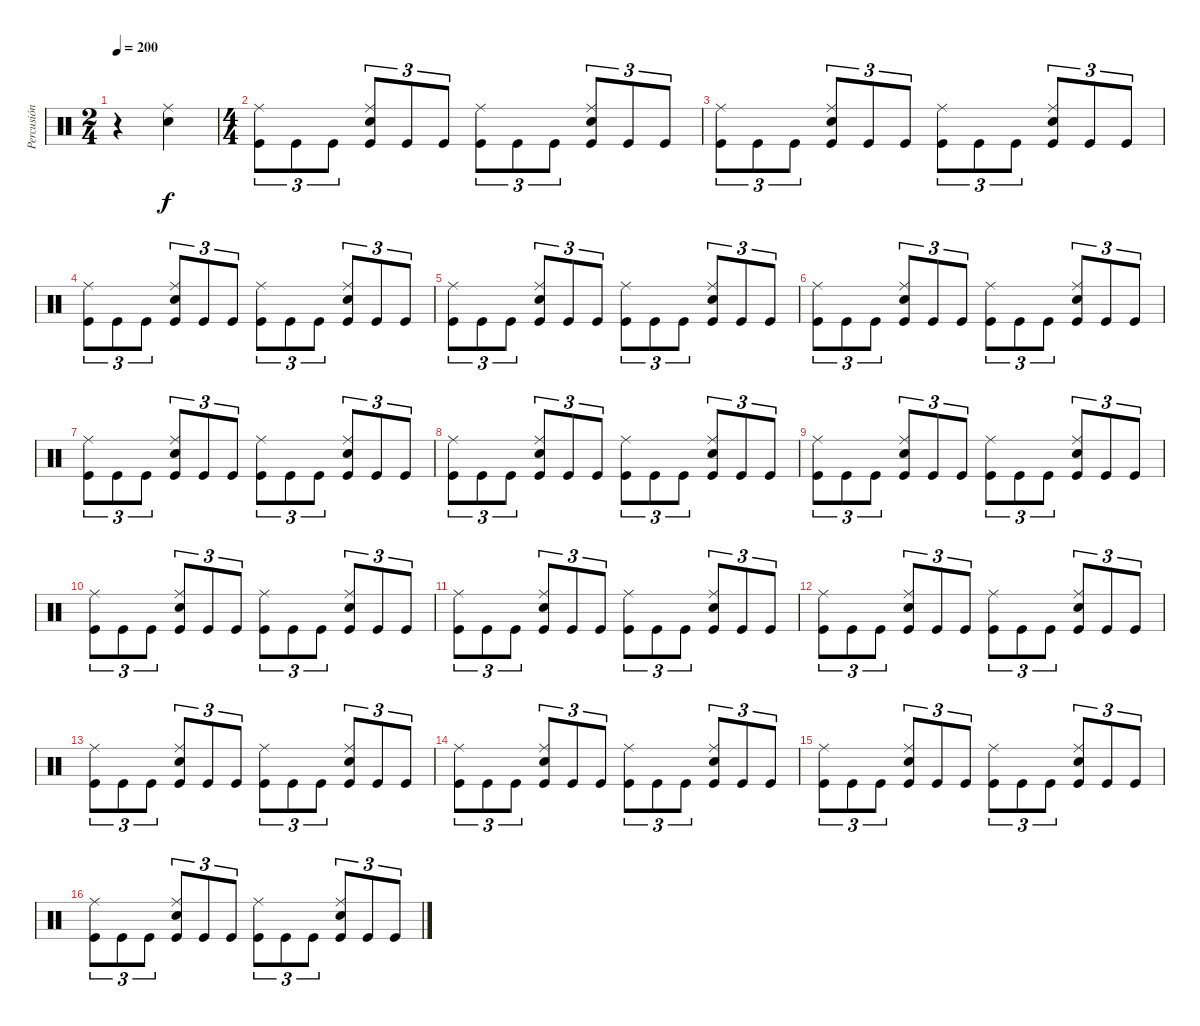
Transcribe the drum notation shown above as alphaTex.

\track ("Percusión" "Percusión") {instrument percussion}
\staff {score}
\articulation defaults
\ts (2 4)
\tempo 200
\clef neutral
\ks c
r.4{dy f} ("Electric Snare (hit)" "Ride (middle)").4 |
\ts (4 4)
("Kick (hit)" "Ride (middle)").8{tu (3 2)} "Kick (hit)".8{tu (3 2)} "Kick (hit)".8{tu (3 2)} ("Kick (hit)" "Electric Snare (hit)" "Ride (middle)").8{tu (3 2)} "Kick (hit)".8{tu (3 2)} "Kick (hit)".8{tu (3 2)} ("Kick (hit)" "Ride (middle)").8{tu (3 2)} "Kick (hit)".8{tu (3 2)} "Kick (hit)".8{tu (3 2)} ("Kick (hit)" "Electric Snare (hit)" "Ride (middle)").8{tu (3 2)} "Kick (hit)".8{tu (3 2)} "Kick (hit)".8{tu (3 2)} |
("Kick (hit)" "Ride (middle)").8{tu (3 2)} "Kick (hit)".8{tu (3 2)} "Kick (hit)".8{tu (3 2)} ("Kick (hit)" "Electric Snare (hit)" "Ride (middle)").8{tu (3 2)} "Kick (hit)".8{tu (3 2)} "Kick (hit)".8{tu (3 2)} ("Kick (hit)" "Ride (middle)").8{tu (3 2)} "Kick (hit)".8{tu (3 2)} "Kick (hit)".8{tu (3 2)} ("Kick (hit)" "Electric Snare (hit)" "Ride (middle)").8{tu (3 2)} "Kick (hit)".8{tu (3 2)} "Kick (hit)".8{tu (3 2)} |
("Kick (hit)" "Ride (middle)").8{tu (3 2)} "Kick (hit)".8{tu (3 2)} "Kick (hit)".8{tu (3 2)} ("Kick (hit)" "Electric Snare (hit)" "Ride (middle)").8{tu (3 2)} "Kick (hit)".8{tu (3 2)} "Kick (hit)".8{tu (3 2)} ("Kick (hit)" "Ride (middle)").8{tu (3 2)} "Kick (hit)".8{tu (3 2)} "Kick (hit)".8{tu (3 2)} ("Kick (hit)" "Electric Snare (hit)" "Ride (middle)").8{tu (3 2)} "Kick (hit)".8{tu (3 2)} "Kick (hit)".8{tu (3 2)} |
("Kick (hit)" "Ride (middle)").8{tu (3 2)} "Kick (hit)".8{tu (3 2)} "Kick (hit)".8{tu (3 2)} ("Kick (hit)" "Electric Snare (hit)" "Ride (middle)").8{tu (3 2)} "Kick (hit)".8{tu (3 2)} "Kick (hit)".8{tu (3 2)} ("Kick (hit)" "Ride (middle)").8{tu (3 2)} "Kick (hit)".8{tu (3 2)} "Kick (hit)".8{tu (3 2)} ("Kick (hit)" "Electric Snare (hit)" "Ride (middle)").8{tu (3 2)} "Kick (hit)".8{tu (3 2)} "Kick (hit)".8{tu (3 2)} |
("Kick (hit)" "Ride (middle)").8{tu (3 2)} "Kick (hit)".8{tu (3 2)} "Kick (hit)".8{tu (3 2)} ("Kick (hit)" "Electric Snare (hit)" "Ride (middle)").8{tu (3 2)} "Kick (hit)".8{tu (3 2)} "Kick (hit)".8{tu (3 2)} ("Kick (hit)" "Ride (middle)").8{tu (3 2)} "Kick (hit)".8{tu (3 2)} "Kick (hit)".8{tu (3 2)} ("Kick (hit)" "Electric Snare (hit)" "Ride (middle)").8{tu (3 2)} "Kick (hit)".8{tu (3 2)} "Kick (hit)".8{tu (3 2)} |
("Kick (hit)" "Ride (middle)").8{tu (3 2)} "Kick (hit)".8{tu (3 2)} "Kick (hit)".8{tu (3 2)} ("Kick (hit)" "Electric Snare (hit)" "Ride (middle)").8{tu (3 2)} "Kick (hit)".8{tu (3 2)} "Kick (hit)".8{tu (3 2)} ("Kick (hit)" "Ride (middle)").8{tu (3 2)} "Kick (hit)".8{tu (3 2)} "Kick (hit)".8{tu (3 2)} ("Kick (hit)" "Electric Snare (hit)" "Ride (middle)").8{tu (3 2)} "Kick (hit)".8{tu (3 2)} "Kick (hit)".8{tu (3 2)} |
("Kick (hit)" "Ride (middle)").8{tu (3 2)} "Kick (hit)".8{tu (3 2)} "Kick (hit)".8{tu (3 2)} ("Kick (hit)" "Electric Snare (hit)" "Ride (middle)").8{tu (3 2)} "Kick (hit)".8{tu (3 2)} "Kick (hit)".8{tu (3 2)} ("Kick (hit)" "Ride (middle)").8{tu (3 2)} "Kick (hit)".8{tu (3 2)} "Kick (hit)".8{tu (3 2)} ("Kick (hit)" "Electric Snare (hit)" "Ride (middle)").8{tu (3 2)} "Kick (hit)".8{tu (3 2)} "Kick (hit)".8{tu (3 2)} |
("Kick (hit)" "Ride (middle)").8{tu (3 2)} "Kick (hit)".8{tu (3 2)} "Kick (hit)".8{tu (3 2)} ("Kick (hit)" "Electric Snare (hit)" "Ride (middle)").8{tu (3 2)} "Kick (hit)".8{tu (3 2)} "Kick (hit)".8{tu (3 2)} ("Kick (hit)" "Ride (middle)").8{tu (3 2)} "Kick (hit)".8{tu (3 2)} "Kick (hit)".8{tu (3 2)} ("Kick (hit)" "Electric Snare (hit)" "Ride (middle)").8{tu (3 2)} "Kick (hit)".8{tu (3 2)} "Kick (hit)".8{tu (3 2)} |
("Kick (hit)" "Ride (middle)").8{tu (3 2)} "Kick (hit)".8{tu (3 2)} "Kick (hit)".8{tu (3 2)} ("Kick (hit)" "Electric Snare (hit)" "Ride (middle)").8{tu (3 2)} "Kick (hit)".8{tu (3 2)} "Kick (hit)".8{tu (3 2)} ("Kick (hit)" "Ride (middle)").8{tu (3 2)} "Kick (hit)".8{tu (3 2)} "Kick (hit)".8{tu (3 2)} ("Kick (hit)" "Electric Snare (hit)" "Ride (middle)").8{tu (3 2)} "Kick (hit)".8{tu (3 2)} "Kick (hit)".8{tu (3 2)} |
("Kick (hit)" "Ride (middle)").8{tu (3 2)} "Kick (hit)".8{tu (3 2)} "Kick (hit)".8{tu (3 2)} ("Kick (hit)" "Electric Snare (hit)" "Ride (middle)").8{tu (3 2)} "Kick (hit)".8{tu (3 2)} "Kick (hit)".8{tu (3 2)} ("Kick (hit)" "Ride (middle)").8{tu (3 2)} "Kick (hit)".8{tu (3 2)} "Kick (hit)".8{tu (3 2)} ("Kick (hit)" "Electric Snare (hit)" "Ride (middle)").8{tu (3 2)} "Kick (hit)".8{tu (3 2)} "Kick (hit)".8{tu (3 2)} |
("Kick (hit)" "Ride (middle)").8{tu (3 2)} "Kick (hit)".8{tu (3 2)} "Kick (hit)".8{tu (3 2)} ("Kick (hit)" "Electric Snare (hit)" "Ride (middle)").8{tu (3 2)} "Kick (hit)".8{tu (3 2)} "Kick (hit)".8{tu (3 2)} ("Kick (hit)" "Ride (middle)").8{tu (3 2)} "Kick (hit)".8{tu (3 2)} "Kick (hit)".8{tu (3 2)} ("Kick (hit)" "Electric Snare (hit)" "Ride (middle)").8{tu (3 2)} "Kick (hit)".8{tu (3 2)} "Kick (hit)".8{tu (3 2)} |
("Kick (hit)" "Ride (middle)").8{tu (3 2)} "Kick (hit)".8{tu (3 2)} "Kick (hit)".8{tu (3 2)} ("Kick (hit)" "Electric Snare (hit)" "Ride (middle)").8{tu (3 2)} "Kick (hit)".8{tu (3 2)} "Kick (hit)".8{tu (3 2)} ("Kick (hit)" "Ride (middle)").8{tu (3 2)} "Kick (hit)".8{tu (3 2)} "Kick (hit)".8{tu (3 2)} ("Kick (hit)" "Electric Snare (hit)" "Ride (middle)").8{tu (3 2)} "Kick (hit)".8{tu (3 2)} "Kick (hit)".8{tu (3 2)} |
("Kick (hit)" "Ride (middle)").8{tu (3 2)} "Kick (hit)".8{tu (3 2)} "Kick (hit)".8{tu (3 2)} ("Kick (hit)" "Electric Snare (hit)" "Ride (middle)").8{tu (3 2)} "Kick (hit)".8{tu (3 2)} "Kick (hit)".8{tu (3 2)} ("Kick (hit)" "Ride (middle)").8{tu (3 2)} "Kick (hit)".8{tu (3 2)} "Kick (hit)".8{tu (3 2)} ("Kick (hit)" "Electric Snare (hit)" "Ride (middle)").8{tu (3 2)} "Kick (hit)".8{tu (3 2)} "Kick (hit)".8{tu (3 2)} |
("Kick (hit)" "Ride (middle)").8{tu (3 2)} "Kick (hit)".8{tu (3 2)} "Kick (hit)".8{tu (3 2)} ("Kick (hit)" "Electric Snare (hit)" "Ride (middle)").8{tu (3 2)} "Kick (hit)".8{tu (3 2)} "Kick (hit)".8{tu (3 2)} ("Kick (hit)" "Ride (middle)").8{tu (3 2)} "Kick (hit)".8{tu (3 2)} "Kick (hit)".8{tu (3 2)} ("Kick (hit)" "Electric Snare (hit)" "Ride (middle)").8{tu (3 2)} "Kick (hit)".8{tu (3 2)} "Kick (hit)".8{tu (3 2)} |
("Kick (hit)" "Ride (middle)").8{tu (3 2)} "Kick (hit)".8{tu (3 2)} "Kick (hit)".8{tu (3 2)} ("Kick (hit)" "Electric Snare (hit)" "Ride (middle)").8{tu (3 2)} "Kick (hit)".8{tu (3 2)} "Kick (hit)".8{tu (3 2)} ("Kick (hit)" "Ride (middle)").8{tu (3 2)} "Kick (hit)".8{tu (3 2)} "Kick (hit)".8{tu (3 2)} ("Kick (hit)" "Electric Snare (hit)" "Ride (middle)").8{tu (3 2)} "Kick (hit)".8{tu (3 2)} "Kick (hit)".8{tu (3 2)}
